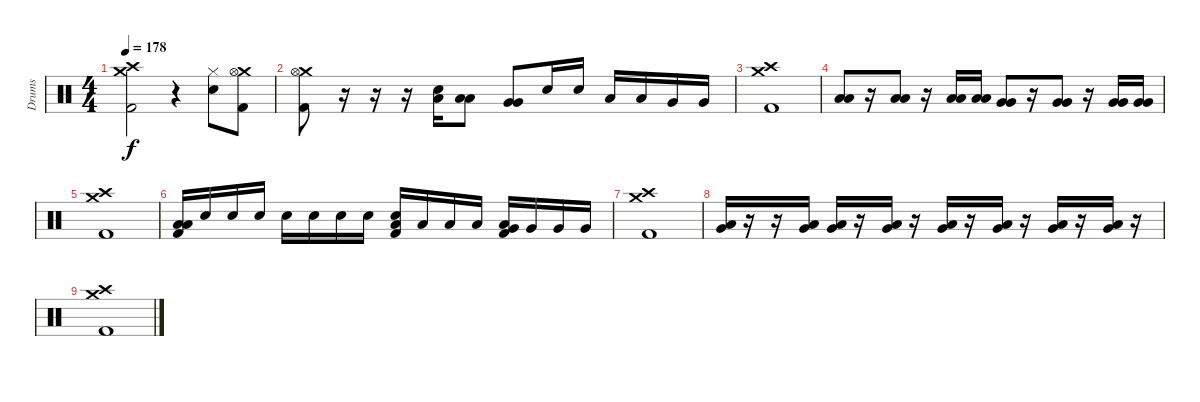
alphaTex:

\track ("Drums" "Drums") {instrument percussion}
\staff {score}
\articulation defaults
\ts (4 4)
\tempo 178
\clef neutral
\ks c
("Crash medium (hit)" "Crash high (hit)" "Kick (hit) 2").2{dy f} r.4 ("Hi-Hat (closed)" "Electric Snare (hit)").8 ("Crash medium (hit)" "Hi-Hat (open)" "Kick (hit) 2").8 |
("Crash medium (hit)" "Hi-Hat (open)" "Kick (hit) 2").8 r.16 r.16 r.16 ("Low Tom (hit)" "Electric Snare (hit)").16 ("Low Tom (hit)" "Low Tom (hit)").8 ("Very Low Tom (hit)" "Very Low Tom (hit)").8 "Electric Snare (hit)".16 "Electric Snare (hit)".16 "Low Tom (hit)".16 "Low Tom (hit)".16 "Very Low Tom (hit)".16 "Very Low Tom (hit)".16 |
("Crash medium (hit)" "Crash high (hit)" "Kick (hit) 2").1 |
("Low Tom (hit)" "Low Tom (hit)").8 r.16 ("Low Tom (hit)" "Low Tom (hit)").8 r.16 ("Low Tom (hit)" "Low Tom (hit)").16 ("Low Tom (hit)" "Low Tom (hit)").16 ("Very Low Tom (hit)" "Very Low Tom (hit)").8 r.16 ("Very Low Tom (hit)" "Very Low Tom (hit)").8 r.16 ("Very Low Tom (hit)" "Very Low Tom (hit)").16 ("Very Low Tom (hit)" "Very Low Tom (hit)").16 |
("Crash medium (hit)" "Crash high (hit)" "Kick (hit) 2").1 |
("Low Tom (hit)" "Low Tom (hit)" "Kick (hit) 2").16 "Electric Snare (hit)".16 "Electric Snare (hit)".16 "Electric Snare (hit)".16 "Electric Snare (hit)".16 "Electric Snare (hit)".16 "Electric Snare (hit)".16 "Electric Snare (hit)".16 ("Low Tom (hit)" "Electric Snare (hit)" "Kick (hit) 2").16 "Low Tom (hit)".16 "Low Tom (hit)".16 "Low Tom (hit)".16 ("Very Low Tom (hit)" "Low Tom (hit)" "Kick (hit) 2").16 "Very Low Tom (hit)".16 "Very Low Tom (hit)".16 "Very Low Tom (hit)".16 |
("Crash medium (hit)" "Crash high (hit)" "Kick (hit) 2").1 |
("Low Tom (hit)" "Very Low Tom (hit)").16 r.16 r.16 ("Low Tom (hit)" "Very Low Tom (hit)").16 ("Low Tom (hit)" "Very Low Tom (hit)").16 r.16 ("Low Tom (hit)" "Very Low Tom (hit)").16 r.16 ("Very Low Tom (hit)" "Low Floor Tom (hit)").16 r.16 ("Very Low Tom (hit)" "Low Floor Tom (hit)").16 r.16 ("Low Tom (hit)" "Very Low Tom (hit)").16 r.16 ("Low Tom (hit)" "Very Low Tom (hit)").16 r.16 |
("Crash medium (hit)" "Crash high (hit)" "Kick (hit) 2").1
